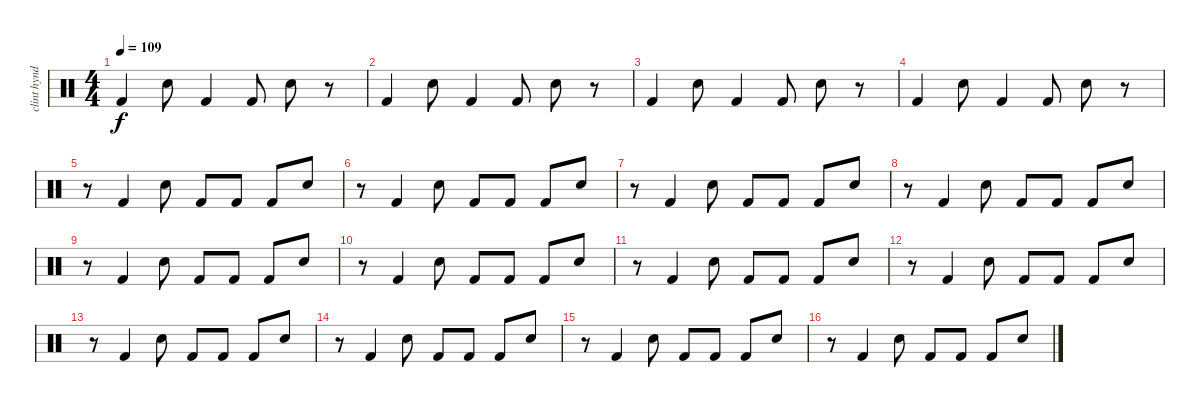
\track ("clint hyndman" "clint hynd") {instrument percussion}
\staff {score}
\articulation defaults
\ts (4 4)
\tempo 109
\clef neutral
\ks c "Kick (hit) 2".4{dy f} "Electric Snare (hit)".8 "Kick (hit) 2".4 "Kick (hit) 2".8 "Electric Snare (hit)".8
r.8 |
"Kick (hit) 2".4 "Electric Snare (hit)".8 "Kick (hit) 2".4 "Kick (hit) 2".8 "Electric Snare (hit)".8 r.8 |
"Kick (hit) 2".4 "Electric Snare (hit)".8 "Kick (hit) 2".4 "Kick (hit) 2".8 "Electric Snare (hit)".8 r.8 |
"Kick (hit) 2".4 "Electric Snare (hit)".8 "Kick (hit) 2".4 "Kick (hit) 2".8 "Electric Snare (hit)".8 r.8 |
r.8 "Kick (hit) 2".4 "Electric Snare (hit)".8 "Kick (hit) 2".8 "Kick (hit) 2".8 "Kick (hit) 2".8 "Electric Snare (hit)".8 |
r.8 "Kick (hit) 2".4 "Electric Snare (hit)".8 "Kick (hit) 2".8 "Kick (hit) 2".8 "Kick (hit) 2".8 "Electric Snare (hit)".8 |
r.8 "Kick (hit) 2".4 "Electric Snare (hit)".8 "Kick (hit) 2".8 "Kick (hit) 2".8 "Kick (hit) 2".8 "Electric Snare (hit)".8 |
r.8 "Kick (hit) 2".4 "Electric Snare (hit)".8 "Kick (hit) 2".8 "Kick (hit) 2".8 "Kick (hit) 2".8 "Electric Snare (hit)".8 |
r.8 "Kick (hit) 2".4 "Electric Snare (hit)".8 "Kick (hit) 2".8 "Kick (hit) 2".8 "Kick (hit) 2".8 "Electric Snare (hit)".8 |
r.8 "Kick (hit) 2".4 "Electric Snare (hit)".8 "Kick (hit) 2".8 "Kick (hit) 2".8 "Kick (hit) 2".8 "Electric Snare (hit)".8 |
r.8 "Kick (hit) 2".4 "Electric Snare (hit)".8 "Kick (hit) 2".8 "Kick (hit) 2".8 "Kick (hit) 2".8 "Electric Snare (hit)".8 |
r.8 "Kick (hit) 2".4 "Electric Snare (hit)".8 "Kick (hit) 2".8 "Kick (hit) 2".8 "Kick (hit) 2".8 "Electric Snare (hit)".8 |
r.8 "Kick (hit) 2".4 "Electric Snare (hit)".8 "Kick (hit) 2".8 "Kick (hit) 2".8 "Kick (hit) 2".8 "Electric Snare (hit)".8 |
r.8 "Kick (hit) 2".4 "Electric Snare (hit)".8 "Kick (hit) 2".8 "Kick (hit) 2".8 "Kick (hit) 2".8 "Electric Snare (hit)".8 |
r.8 "Kick (hit) 2".4 "Electric Snare (hit)".8 "Kick (hit) 2".8 "Kick (hit) 2".8 "Kick (hit) 2".8 "Electric Snare (hit)".8 |
r.8 "Kick (hit) 2".4 "Electric Snare (hit)".8 "Kick (hit) 2".8 "Kick (hit) 2".8 "Kick (hit) 2".8 "Electric Snare (hit)".8
